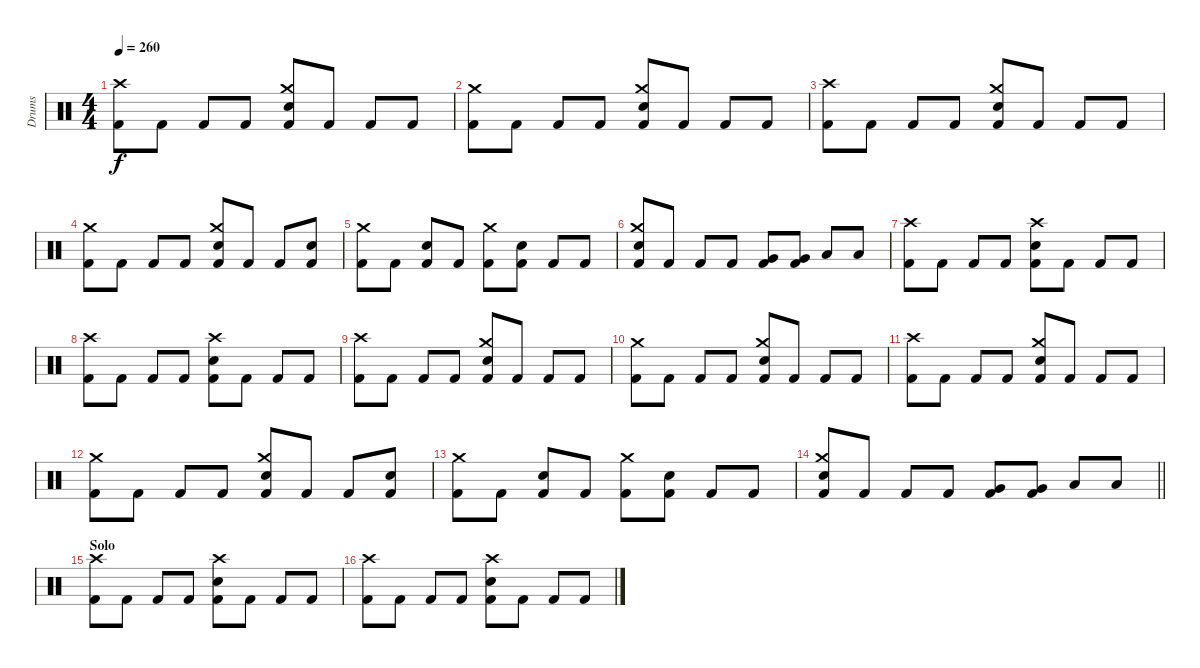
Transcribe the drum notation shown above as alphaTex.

\track ("Drums" "Drums") {instrument percussion}
\staff {score}
\articulation defaults
\ts (4 4)
\tempo 260
\clef neutral
\ks c
("Crash high (hit)" "Kick (hit) 2").8{dy f} "Kick (hit) 2".8 "Kick (hit) 2".8 "Kick (hit) 2".8 ("Crash medium (hit)" "Electric Snare (hit)" "Kick (hit) 2").8 "Kick (hit) 2".8 "Kick (hit) 2".8 "Kick (hit) 2".8 |
("Crash medium (hit)" "Kick (hit) 2").8 "Kick (hit) 2".8 "Kick (hit) 2".8 "Kick (hit) 2".8 ("Crash medium (hit)" "Electric Snare (hit)" "Kick (hit) 2").8 "Kick (hit) 2".8 "Kick (hit) 2".8 "Kick (hit) 2".8 |
("Crash high (hit)" "Kick (hit) 2").8 "Kick (hit) 2".8 "Kick (hit) 2".8 "Kick (hit) 2".8 ("Crash medium (hit)" "Electric Snare (hit)" "Kick (hit) 2").8 "Kick (hit) 2".8 "Kick (hit) 2".8 "Kick (hit) 2".8 |
("Crash medium (hit)" "Kick (hit) 2").8 "Kick (hit) 2".8 "Kick (hit) 2".8 "Kick (hit) 2".8 ("Crash medium (hit)" "Electric Snare (hit)" "Kick (hit) 2").8 "Kick (hit) 2".8 "Kick (hit) 2".8 ("Electric Snare (hit)" "Kick (hit) 2").8 |
("Crash medium (hit)" "Kick (hit) 2").8 "Kick (hit) 2".8 ("Electric Snare (hit)" "Kick (hit) 2").8 "Kick (hit) 2".8 ("Crash medium (hit)" "Kick (hit) 2").8 ("Electric Snare (hit)" "Kick (hit) 2").8 "Kick (hit) 2".8 "Kick (hit) 2".8 |
("Crash medium (hit)" "Electric Snare (hit)" "Kick (hit) 2").8 "Kick (hit) 2".8 "Kick (hit) 2".8 "Kick (hit) 2".8 ("Very Low Tom (hit)" "Kick (hit) 2").8 ("Very Low Tom (hit)" "Kick (hit) 2").8 "Low Floor Tom (hit)".8 "Low Floor Tom (hit)".8 |
("Crash high (hit)" "Kick (hit) 2").8 "Kick (hit) 2".8 "Kick (hit) 2".8 "Kick (hit) 2".8 ("Crash high (hit)" "Electric Snare (hit)" "Kick (hit) 2").8 "Kick (hit) 2".8 "Kick (hit) 2".8 "Kick (hit) 2".8 |
("Crash high (hit)" "Kick (hit) 2").8 "Kick (hit) 2".8 "Kick (hit) 2".8 "Kick (hit) 2".8 ("Crash high (hit)" "Electric Snare (hit)" "Kick (hit) 2").8 "Kick (hit) 2".8 "Kick (hit) 2".8 "Kick (hit) 2".8 |
("Crash high (hit)" "Kick (hit) 2").8 "Kick (hit) 2".8 "Kick (hit) 2".8 "Kick (hit) 2".8 ("Crash medium (hit)" "Electric Snare (hit)" "Kick (hit) 2").8 "Kick (hit) 2".8 "Kick (hit) 2".8 "Kick (hit) 2".8 |
("Crash medium (hit)" "Kick (hit) 2").8 "Kick (hit) 2".8 "Kick (hit) 2".8 "Kick (hit) 2".8 ("Crash medium (hit)" "Electric Snare (hit)" "Kick (hit) 2").8 "Kick (hit) 2".8 "Kick (hit) 2".8 "Kick (hit) 2".8 |
("Crash high (hit)" "Kick (hit) 2").8 "Kick (hit) 2".8 "Kick (hit) 2".8 "Kick (hit) 2".8 ("Crash medium (hit)" "Electric Snare (hit)" "Kick (hit) 2").8 "Kick (hit) 2".8 "Kick (hit) 2".8 "Kick (hit) 2".8 |
("Crash medium (hit)" "Kick (hit) 2").8 "Kick (hit) 2".8 "Kick (hit) 2".8 "Kick (hit) 2".8 ("Crash medium (hit)" "Electric Snare (hit)" "Kick (hit) 2").8 "Kick (hit) 2".8 "Kick (hit) 2".8 ("Electric Snare (hit)" "Kick (hit) 2").8 |
("Crash medium (hit)" "Kick (hit) 2").8 "Kick (hit) 2".8 ("Electric Snare (hit)" "Kick (hit) 2").8 "Kick (hit) 2".8 ("Crash medium (hit)" "Kick (hit) 2").8 ("Electric Snare (hit)" "Kick (hit) 2").8 "Kick (hit) 2".8 "Kick (hit) 2".8 |
\barLineRight lightlight
("Crash medium (hit)" "Electric Snare (hit)" "Kick (hit) 2").8 "Kick (hit) 2".8 "Kick (hit) 2".8 "Kick (hit) 2".8 ("Very Low Tom (hit)" "Kick (hit) 2").8 ("Very Low Tom (hit)" "Kick (hit) 2").8 "Low Floor Tom (hit)".8 "Low Floor Tom (hit)".8 |
\section ("" "Solo")
("Crash high (hit)" "Kick (hit) 2").8 "Kick (hit) 2".8 "Kick (hit) 2".8 "Kick (hit) 2".8 ("Crash high (hit)" "Electric Snare (hit)" "Kick (hit) 2").8 "Kick (hit) 2".8 "Kick (hit) 2".8 "Kick (hit) 2".8 |
("Crash high (hit)" "Kick (hit) 2").8 "Kick (hit) 2".8 "Kick (hit) 2".8 "Kick (hit) 2".8 ("Crash high (hit)" "Electric Snare (hit)" "Kick (hit) 2").8 "Kick (hit) 2".8 "Kick (hit) 2".8 "Kick (hit) 2".8
